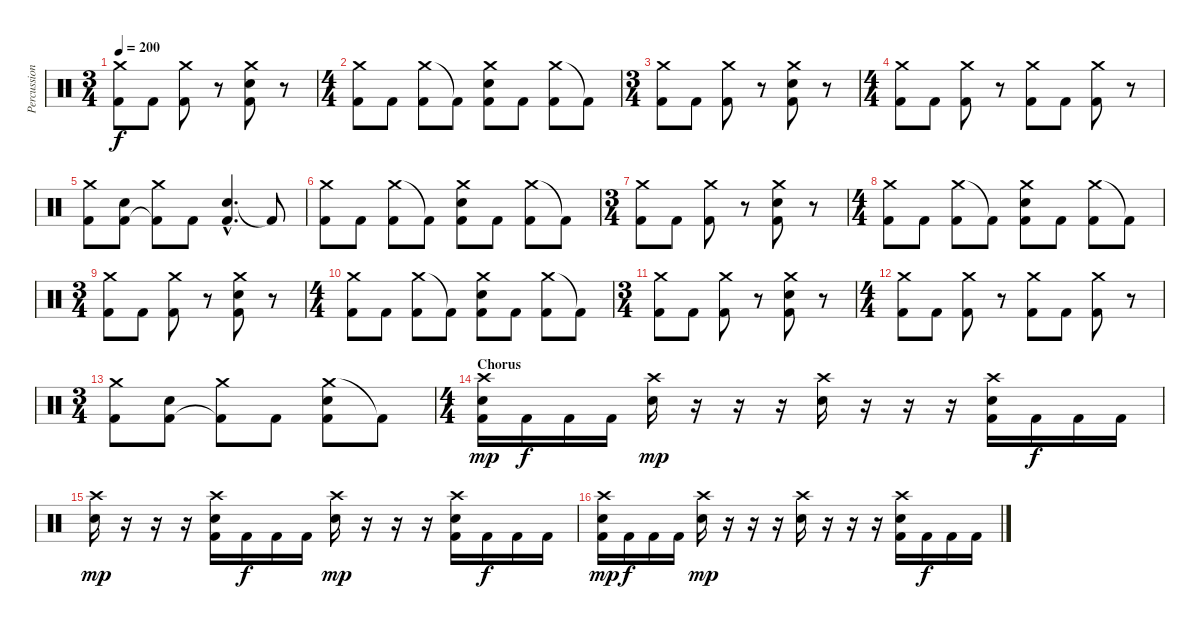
\track ("Percussions ( Brylle )" "Percussion") {instrument percussion}
\staff {score}
\articulation defaults
\ts (3 4)
\tempo 200
\clef neutral
\ks c
("Crash medium (hit)" "Kick (hit) 2").8{dy f} "Kick (hit) 2".8 ("Crash medium (hit)" "Kick (hit) 2").8 r.8 ("Crash medium (hit)" "Electric Snare (hit)" "Kick (hit) 2").8 r.8 |
\ts (4 4)
("Crash medium (hit)" "Kick (hit) 2").8 "Kick (hit) 2".8 ("Crash medium (hit)" "Kick (hit) 2").8 "Kick (hit) 2"{t}.8 ("Crash medium (hit)" "Electric Snare (hit)" "Kick (hit) 2").8 "Kick (hit) 2".8 ("Crash medium (hit)" "Kick (hit) 2").8 "Kick (hit) 2"{t}.8 |
\ts (3 4)
("Crash medium (hit)" "Kick (hit) 2").8 "Kick (hit) 2".8 ("Crash medium (hit)" "Kick (hit) 2").8 r.8 ("Crash medium (hit)" "Electric Snare (hit)" "Kick (hit) 2").8 r.8 |
\ts (4 4)
("Crash medium (hit)" "Kick (hit) 2").8 "Kick (hit) 2".8 ("Crash medium (hit)" "Kick (hit) 2").8 r.8 ("Crash medium (hit)" "Kick (hit) 2").8 "Kick (hit) 2".8 ("Crash medium (hit)" "Kick (hit) 2").8 r.8 |
("Crash medium (hit)" "Kick (hit) 2").8 ("Electric Snare (hit)" "Kick (hit) 2").8 ("Crash medium (hit)" "Kick (hit) 2"{t}).8 "Kick (hit) 2".8 ("Electric Snare (hit)"{hac} "Kick (hit) 2"{hac}).4{d} "Kick (hit) 2"{t}.8 |
("Crash medium (hit)" "Kick (hit) 2").8{volume 15} "Kick (hit) 2".8 ("Crash medium (hit)" "Kick (hit) 2").8 "Kick (hit) 2"{t}.8 ("Crash medium (hit)" "Electric Snare (hit)" "Kick (hit) 2").8 "Kick (hit) 2".8 ("Crash medium (hit)" "Kick (hit) 2").8 "Kick (hit) 2"{t}.8 |
\ts (3 4)
("Crash medium (hit)" "Kick (hit) 2").8 "Kick (hit) 2".8 ("Crash medium (hit)" "Kick (hit) 2").8 r.8 ("Crash medium (hit)" "Electric Snare (hit)" "Kick (hit) 2").8 r.8 |
\ts (4 4)
("Crash medium (hit)" "Kick (hit) 2").8 "Kick (hit) 2".8 ("Crash medium (hit)" "Kick (hit) 2").8 "Kick (hit) 2"{t}.8 ("Crash medium (hit)" "Electric Snare (hit)" "Kick (hit) 2").8 "Kick (hit) 2".8 ("Crash medium (hit)" "Kick (hit) 2").8 "Kick (hit) 2"{t}.8 |
\ts (3 4)
("Crash medium (hit)" "Kick (hit) 2").8 "Kick (hit) 2".8 ("Crash medium (hit)" "Kick (hit) 2").8 r.8 ("Crash medium (hit)" "Electric Snare (hit)" "Kick (hit) 2").8 r.8 |
\ts (4 4)
("Crash medium (hit)" "Kick (hit) 2").8 "Kick (hit) 2".8 ("Crash medium (hit)" "Kick (hit) 2").8 "Kick (hit) 2"{t}.8 ("Crash medium (hit)" "Electric Snare (hit)" "Kick (hit) 2").8 "Kick (hit) 2".8 ("Crash medium (hit)" "Kick (hit) 2").8 "Kick (hit) 2"{t}.8 |
\ts (3 4)
("Crash medium (hit)" "Kick (hit) 2").8 "Kick (hit) 2".8 ("Crash medium (hit)" "Kick (hit) 2").8 r.8 ("Crash medium (hit)" "Electric Snare (hit)" "Kick (hit) 2").8 r.8 |
\ts (4 4)
("Crash medium (hit)" "Kick (hit) 2").8 "Kick (hit) 2".8 ("Crash medium (hit)" "Kick (hit) 2").8 r.8 ("Crash medium (hit)" "Kick (hit) 2").8 "Kick (hit) 2".8 ("Crash medium (hit)" "Kick (hit) 2").8 r.8 |
\ts (3 4)
("Crash medium (hit)" "Kick (hit) 2").8 ("Electric Snare (hit)" "Kick (hit) 2").8 ("Crash medium (hit)" "Kick (hit) 2"{t}).8 "Kick (hit) 2".8 ("Crash medium (hit)" "Electric Snare (hit)" "Kick (hit) 2").8 "Kick (hit) 2"{t}.8 |
\ts (4 4)
\section ("" "Chorus")
("Crash high (hit)" "Electric Snare (hit)" "Kick (hit) 2").16{dy mp} "Kick (hit) 2".16{dy f} "Kick (hit) 2".16 "Kick (hit) 2".16 ("Crash high (hit)" "Electric Snare (hit)").16{dy mp} r.16 r.16 r.16 ("Crash high (hit)" "Electric Snare (hit)").16 r.16 r.16 r.16 ("Crash high (hit)" "Electric Snare (hit)" "Kick (hit) 2").16 "Kick (hit) 2".16{dy f} "Kick (hit) 2".16 "Kick (hit) 2".16 |
("Crash high (hit)" "Electric Snare (hit)").16{dy mp} r.16 r.16 r.16 ("Crash high (hit)" "Electric Snare (hit)" "Kick (hit) 2").16 "Kick (hit) 2".16{dy f} "Kick (hit) 2".16 "Kick (hit) 2".16 ("Crash high (hit)" "Electric Snare (hit)").16{dy mp} r.16 r.16 r.16 ("Crash high (hit)" "Electric Snare (hit)" "Kick (hit) 2").16 "Kick (hit) 2".16{dy f} "Kick (hit) 2".16 "Kick (hit) 2".16 |
("Crash high (hit)" "Electric Snare (hit)" "Kick (hit) 2").16{dy mp} "Kick (hit) 2".16{dy f} "Kick (hit) 2".16 "Kick (hit) 2".16 ("Crash high (hit)" "Electric Snare (hit)").16{dy mp} r.16 r.16 r.16 ("Crash high (hit)" "Electric Snare (hit)").16 r.16 r.16 r.16 ("Crash high (hit)" "Electric Snare (hit)" "Kick (hit) 2").16 "Kick (hit) 2".16{dy f} "Kick (hit) 2".16 "Kick (hit) 2".16
